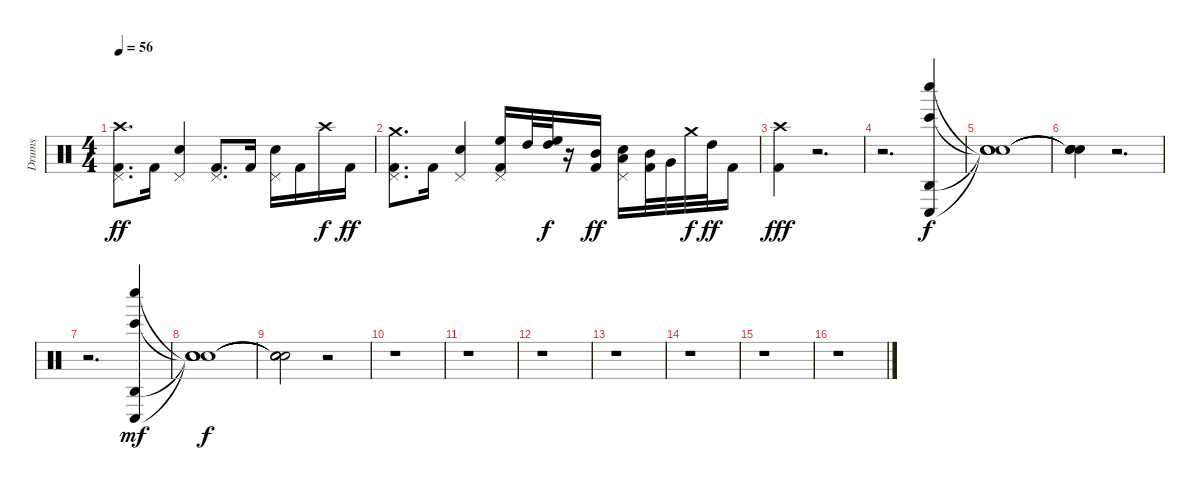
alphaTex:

\track ("Drums" "Drums") {instrument percussion}
\staff {score}
\articulation defaults
\ts (4 4)
\tempo 56
\clef neutral
\ks c
("Crash high (hit)" "Pedal Hi-Hat (hit)" "Kick (hit) 2").8{d dy ff} "Kick (hit) 2".16{volume 5} ("Snare (hit) 2" "Pedal Hi-Hat (hit)").4{volume 7} ("Kick (hit) 2" "Pedal Hi-Hat (hit)").8{d volume 8} "Kick (hit) 2".16 ("Snare (hit) 2" "Pedal Hi-Hat (hit)").16 "Kick (hit) 2".16 "Crash high (hit)".16{dy f} "Kick (hit) 2".16{dy ff} |
("Crash medium (hit)" "Pedal Hi-Hat (hit)" "Kick (hit) 2").8{d} "Kick (hit) 2".16 ("Snare (hit) 2" "Pedal Hi-Hat (hit)").4 ("Kick (hit) 2" "Pedal Hi-Hat (hit)" "High Floor Tom (hit)").16 "High Tom (hit)".32 ("High Floor Tom (hit)" "High Tom (hit)").32{dy f} r.16 ("Mid Tom (hit)" "Kick (hit) 2").16{dy ff} ("Low Tom (hit)" "Snare (hit) 2" "Pedal Hi-Hat (hit)").16{volume 8} ("Mid Tom (hit)" "Kick (hit) 2").32{volume 10} "Very Low Tom (hit)".32{volume 11} "Crash medium (hit)".32{dy f} "High Tom (hit)".32{dy ff volume 11} "Kick (hit) 2".16 |
("Crash high (hit)" "Kick (hit) 2").4{dy fff} r.2{d} |
r.2{d} ("Bongo High (hit)" "Whistle low (hit)" "Agogo high (hit)" "Conga low (hit)").4{dy f volume 9} |
("Snare (hit)"{t} "Snare (hit)"{t} "Snare (hit)"{t} "Snare (hit)"{t}).1 |
("Snare (hit)"{t} "Snare (hit)"{t} "Snare (hit)"{t} "Snare (hit)"{t}).4 r.2{d} |
r.2{d} ("Bongo High (hit)" "Whistle low (hit)" "Conga low (hit)" "Agogo high (hit)").4{dy mf volume 4 balance 12} |
("Snare (hit)"{t} "Snare (hit)"{t} "Snare (hit)"{t} "Snare (hit)"{t}).1{dy f} |
("Snare (hit)"{t} "Snare (hit)"{t} "Snare (hit)"{t} "Snare (hit)"{t}).2 r.2 |
r.1 |
r.1 |
r.1 |
r.1 |
r.1 |
r.1 |
r.1
